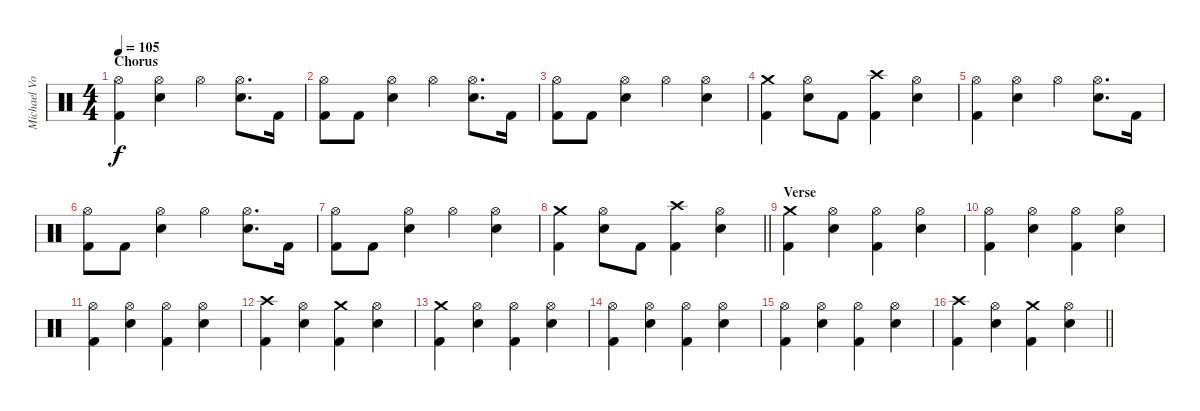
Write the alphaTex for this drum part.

\track ("Michael Von Knorring" "Michael Vo") {instrument percussion}
\staff {score}
\articulation defaults
\ts (4 4)
\section ("" "Chorus")
\tempo 105
\clef neutral
\ks c
("Hi-Hat (open)" "Kick (hit) 2").4{dy f} ("Hi-Hat (open)" "Snare (hit) 2").4 "Hi-Hat (open)".4 ("Hi-Hat (open)" "Snare (hit) 2").8{d} "Kick (hit) 2".16 |
("Hi-Hat (open)" "Kick (hit) 2").8 "Kick (hit) 2".8 ("Hi-Hat (open)" "Snare (hit) 2").4 "Hi-Hat (open)".4 ("Hi-Hat (open)" "Snare (hit) 2").8{d} "Kick (hit) 2".16 |
("Hi-Hat (open)" "Kick (hit) 2").8 "Kick (hit) 2".8 ("Hi-Hat (open)" "Snare (hit) 2").4 "Hi-Hat (open)".4 ("Hi-Hat (open)" "Snare (hit) 2").4 |
("Crash medium (hit)" "Kick (hit) 2").4 ("Hi-Hat (open)" "Snare (hit) 2").8 "Kick (hit) 2".8 ("Crash high (hit)" "Kick (hit) 2").4 ("Hi-Hat (open)" "Snare (hit) 2").4 |
("Hi-Hat (open)" "Kick (hit) 2").4 ("Hi-Hat (open)" "Snare (hit) 2").4 "Hi-Hat (open)".4 ("Hi-Hat (open)" "Snare (hit) 2").8{d} "Kick (hit) 2".16 |
("Hi-Hat (open)" "Kick (hit) 2").8 "Kick (hit) 2".8 ("Hi-Hat (open)" "Snare (hit) 2").4 "Hi-Hat (open)".4 ("Hi-Hat (open)" "Snare (hit) 2").8{d} "Kick (hit) 2".16 |
("Hi-Hat (open)" "Kick (hit) 2").8 "Kick (hit) 2".8 ("Hi-Hat (open)" "Snare (hit) 2").4 "Hi-Hat (open)".4 ("Hi-Hat (open)" "Snare (hit) 2").4 |
\barLineRight lightlight
("Crash medium (hit)" "Kick (hit) 2").4 ("Hi-Hat (open)" "Snare (hit) 2").8 "Kick (hit) 2".8 ("Crash high (hit)" "Kick (hit) 2").4 ("Hi-Hat (open)" "Snare (hit) 2").4 |
\section ("" "Verse")
("Crash medium (hit)" "Kick (hit) 2").4 ("Hi-Hat (open)" "Snare (hit) 2").4 ("Hi-Hat (open)" "Kick (hit) 2").4 ("Hi-Hat (open)" "Snare (hit) 2").4 |
("Hi-Hat (open)" "Kick (hit) 2").4 ("Hi-Hat (open)" "Snare (hit) 2").4 ("Hi-Hat (open)" "Kick (hit) 2").4 ("Hi-Hat (open)" "Snare (hit) 2").4 |
("Hi-Hat (open)" "Kick (hit) 2").4 ("Hi-Hat (open)" "Snare (hit) 2").4 ("Hi-Hat (open)" "Kick (hit) 2").4 ("Hi-Hat (open)" "Snare (hit) 2").4 |
("Crash high (hit)" "Kick (hit) 2").4 ("Hi-Hat (open)" "Snare (hit) 2").4 ("Crash medium (hit)" "Kick (hit) 2").4 ("Hi-Hat (open)" "Snare (hit) 2").4 |
("Crash medium (hit)" "Kick (hit) 2").4 ("Hi-Hat (open)" "Snare (hit) 2").4 ("Hi-Hat (open)" "Kick (hit) 2").4 ("Hi-Hat (open)" "Snare (hit) 2").4 |
("Hi-Hat (open)" "Kick (hit) 2").4 ("Hi-Hat (open)" "Snare (hit) 2").4 ("Hi-Hat (open)" "Kick (hit) 2").4 ("Hi-Hat (open)" "Snare (hit) 2").4 |
("Hi-Hat (open)" "Kick (hit) 2").4 ("Hi-Hat (open)" "Snare (hit) 2").4 ("Hi-Hat (open)" "Kick (hit) 2").4 ("Hi-Hat (open)" "Snare (hit) 2").4 |
\barLineRight lightlight
("Crash high (hit)" "Kick (hit) 2").4 ("Hi-Hat (open)" "Snare (hit) 2").4 ("Crash medium (hit)" "Kick (hit) 2").4 ("Hi-Hat (open)" "Snare (hit) 2").4
